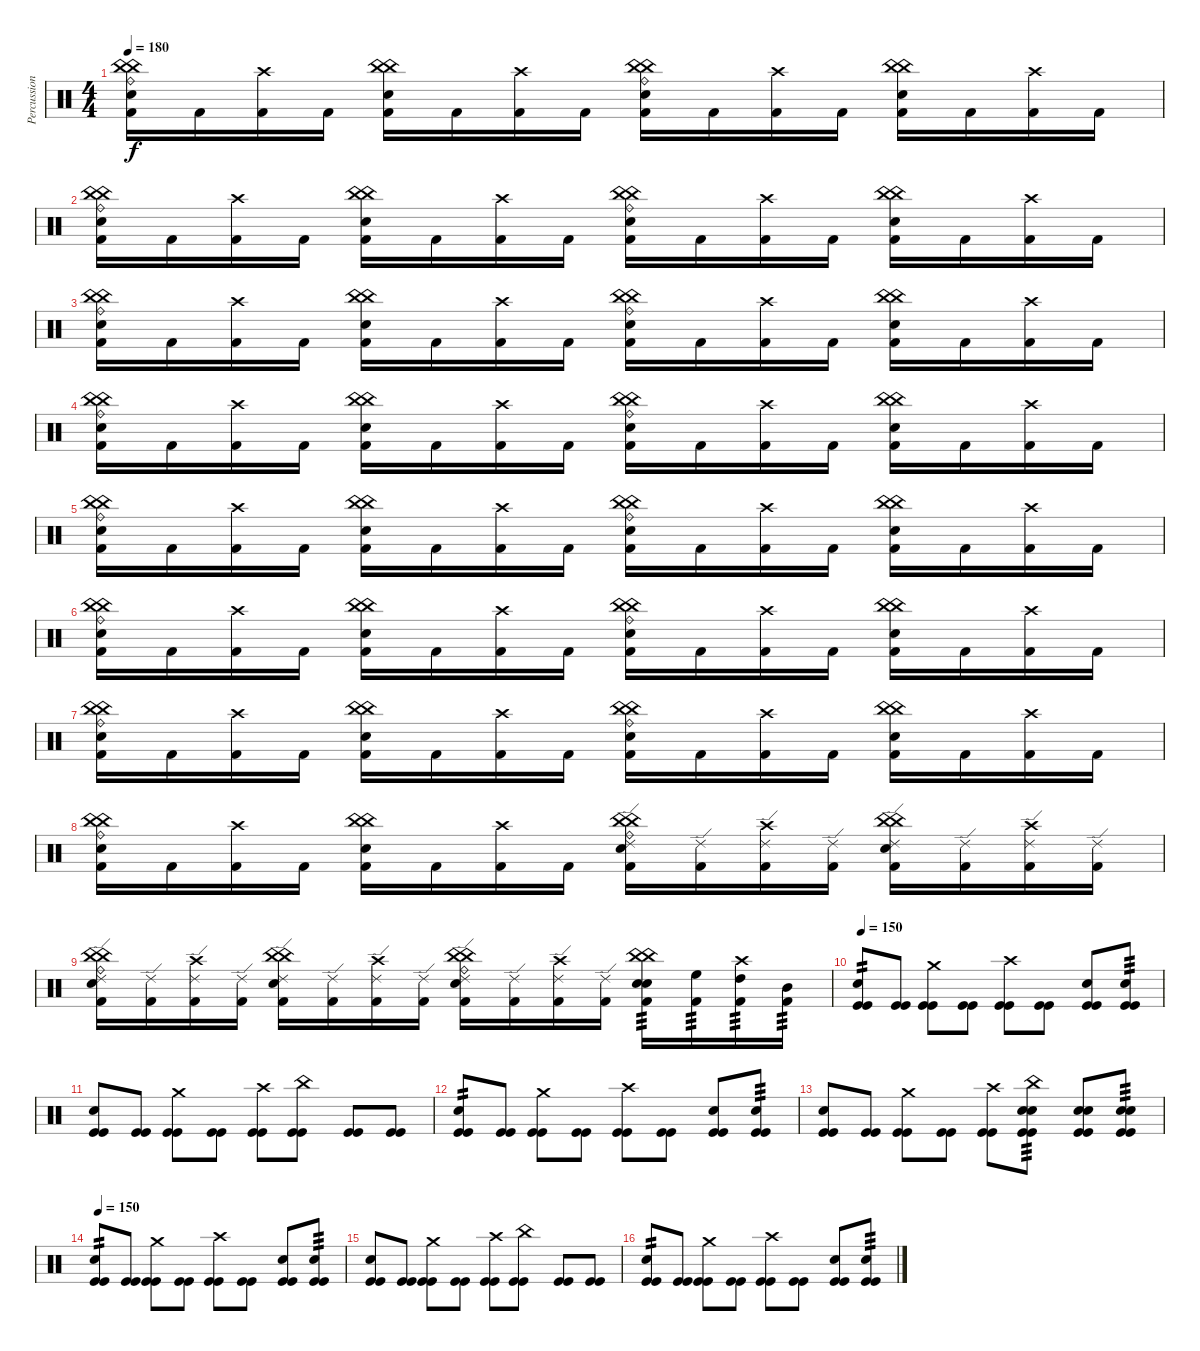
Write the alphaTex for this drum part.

\track ("Percussions" "Percussion") {instrument percussion}
\staff {score}
\articulation defaults
\ts (4 4)
\tempo 180
\clef neutral
\ks c
("China (hit)" "China (hit)" "Ride (bell)" "Snare (hit) 2" "Kick (hit) 2").16{dy f} "Kick (hit) 2".16 ("Crash high (hit)" "Kick (hit) 2").16 "Kick (hit) 2".16 ("China (hit)" "China (hit)" "Snare (hit) 2" "Kick (hit) 2").16 "Kick (hit) 2".16 ("Crash high (hit)" "Kick (hit) 2").16 "Kick (hit) 2".16 ("China (hit)" "China (hit)" "Ride (bell)" "Snare (hit) 2" "Kick (hit) 2").16 "Kick (hit) 2".16 ("Crash high (hit)" "Kick (hit) 2").16 "Kick (hit) 2".16 ("China (hit)" "China (hit)" "Snare (hit) 2" "Kick (hit) 2").16 "Kick (hit) 2".16 ("Crash high (hit)" "Kick (hit) 2").16 "Kick (hit) 2".16 |
("China (hit)" "China (hit)" "Ride (bell)" "Snare (hit) 2" "Kick (hit) 2").16 "Kick (hit) 2".16 ("Crash high (hit)" "Kick (hit) 2").16 "Kick (hit) 2".16 ("China (hit)" "China (hit)" "Snare (hit) 2" "Kick (hit) 2").16 "Kick (hit) 2".16 ("Crash high (hit)" "Kick (hit) 2").16 "Kick (hit) 2".16 ("China (hit)" "China (hit)" "Ride (bell)" "Snare (hit) 2" "Kick (hit) 2").16 "Kick (hit) 2".16 ("Crash high (hit)" "Kick (hit) 2").16 "Kick (hit) 2".16 ("China (hit)" "China (hit)" "Snare (hit) 2" "Kick (hit) 2").16 "Kick (hit) 2".16 ("Crash high (hit)" "Kick (hit) 2").16 "Kick (hit) 2".16 |
("China (hit)" "China (hit)" "Ride (bell)" "Snare (hit) 2" "Kick (hit) 2").16 "Kick (hit) 2".16 ("Crash high (hit)" "Kick (hit) 2").16 "Kick (hit) 2".16 ("China (hit)" "China (hit)" "Snare (hit) 2" "Kick (hit) 2").16 "Kick (hit) 2".16 ("Crash high (hit)" "Kick (hit) 2").16 "Kick (hit) 2".16 ("China (hit)" "China (hit)" "Ride (bell)" "Snare (hit) 2" "Kick (hit) 2").16 "Kick (hit) 2".16 ("Crash high (hit)" "Kick (hit) 2").16 "Kick (hit) 2".16 ("China (hit)" "China (hit)" "Snare (hit) 2" "Kick (hit) 2").16 "Kick (hit) 2".16 ("Crash high (hit)" "Kick (hit) 2").16 "Kick (hit) 2".16 |
("China (hit)" "China (hit)" "Ride (bell)" "Snare (hit) 2" "Kick (hit) 2").16 "Kick (hit) 2".16 ("Crash high (hit)" "Kick (hit) 2").16 "Kick (hit) 2".16 ("China (hit)" "China (hit)" "Snare (hit) 2" "Kick (hit) 2").16 "Kick (hit) 2".16 ("Crash high (hit)" "Kick (hit) 2").16 "Kick (hit) 2".16 ("China (hit)" "China (hit)" "Ride (bell)" "Snare (hit) 2" "Kick (hit) 2").16 "Kick (hit) 2".16 ("Crash high (hit)" "Kick (hit) 2").16 "Kick (hit) 2".16 ("China (hit)" "China (hit)" "Snare (hit) 2" "Kick (hit) 2").16 "Kick (hit) 2".16 ("Crash high (hit)" "Kick (hit) 2").16 "Kick (hit) 2".16 |
("China (hit)" "China (hit)" "Ride (bell)" "Snare (hit) 2" "Kick (hit) 2").16 "Kick (hit) 2".16 ("Crash high (hit)" "Kick (hit) 2").16 "Kick (hit) 2".16 ("China (hit)" "China (hit)" "Snare (hit) 2" "Kick (hit) 2").16 "Kick (hit) 2".16 ("Crash high (hit)" "Kick (hit) 2").16 "Kick (hit) 2".16 ("China (hit)" "China (hit)" "Ride (bell)" "Snare (hit) 2" "Kick (hit) 2").16 "Kick (hit) 2".16 ("Crash high (hit)" "Kick (hit) 2").16 "Kick (hit) 2".16 ("China (hit)" "China (hit)" "Snare (hit) 2" "Kick (hit) 2").16 "Kick (hit) 2".16 ("Crash high (hit)" "Kick (hit) 2").16 "Kick (hit) 2".16 |
("China (hit)" "China (hit)" "Ride (bell)" "Snare (hit) 2" "Kick (hit) 2").16 "Kick (hit) 2".16 ("Crash high (hit)" "Kick (hit) 2").16 "Kick (hit) 2".16 ("China (hit)" "China (hit)" "Snare (hit) 2" "Kick (hit) 2").16 "Kick (hit) 2".16 ("Crash high (hit)" "Kick (hit) 2").16 "Kick (hit) 2".16 ("China (hit)" "China (hit)" "Ride (bell)" "Snare (hit) 2" "Kick (hit) 2").16 "Kick (hit) 2".16 ("Crash high (hit)" "Kick (hit) 2").16 "Kick (hit) 2".16 ("China (hit)" "China (hit)" "Snare (hit) 2" "Kick (hit) 2").16 "Kick (hit) 2".16 ("Crash high (hit)" "Kick (hit) 2").16 "Kick (hit) 2".16 |
("China (hit)" "China (hit)" "Ride (bell)" "Snare (hit) 2" "Kick (hit) 2").16 "Kick (hit) 2".16 ("Crash high (hit)" "Kick (hit) 2").16 "Kick (hit) 2".16 ("China (hit)" "China (hit)" "Snare (hit) 2" "Kick (hit) 2").16 "Kick (hit) 2".16 ("Crash high (hit)" "Kick (hit) 2").16 "Kick (hit) 2".16 ("China (hit)" "China (hit)" "Ride (bell)" "Snare (hit) 2" "Kick (hit) 2").16 "Kick (hit) 2".16 ("Crash high (hit)" "Kick (hit) 2").16 "Kick (hit) 2".16 ("China (hit)" "China (hit)" "Snare (hit) 2" "Kick (hit) 2").16 "Kick (hit) 2".16 ("Crash high (hit)" "Kick (hit) 2").16 "Kick (hit) 2".16 |
("China (hit)" "China (hit)" "Ride (bell)" "Snare (hit) 2" "Kick (hit) 2").16 "Kick (hit) 2".16 ("Crash high (hit)" "Kick (hit) 2").16 "Kick (hit) 2".16 ("China (hit)" "China (hit)" "Snare (hit) 2" "Kick (hit) 2").16 "Kick (hit) 2".16 ("Crash high (hit)" "Kick (hit) 2").16 "Kick (hit) 2".16 ("China (hit)" "China (hit)" "Ride (bell)" "Ride (edge) 2" "Snare (hit) 2" "Kick (hit) 2").16 ("Ride (edge) 2" "Kick (hit) 2").16 ("Ride (edge) 2" "Crash high (hit)" "Kick (hit) 2").16 ("Ride (edge) 2" "Kick (hit) 2").16 ("China (hit)" "China (hit)" "Ride (edge) 2" "Snare (hit) 2" "Kick (hit) 2").16 ("Ride (edge) 2" "Kick (hit) 2").16 ("Ride (edge) 2" "Crash high (hit)" "Kick (hit) 2").16 ("Ride (edge) 2" "Kick (hit) 2").16 |
("China (hit)" "China (hit)" "Ride (bell)" "Ride (edge) 2" "Snare (hit) 2" "Kick (hit) 2").16 ("Ride (edge) 2" "Kick (hit) 2").16 ("Ride (edge) 2" "Crash high (hit)" "Kick (hit) 2").16 ("Ride (edge) 2" "Kick (hit) 2").16 ("China (hit)" "China (hit)" "Ride (edge) 2" "Snare (hit) 2" "Kick (hit) 2").16 ("Ride (edge) 2" "Kick (hit) 2").16 ("Ride (edge) 2" "Crash high (hit)" "Kick (hit) 2").16 ("Ride (edge) 2" "Kick (hit) 2").16 ("China (hit)" "China (hit)" "Ride (bell)" "Ride (edge) 2" "Snare (hit) 2" "Kick (hit) 2").16 ("Ride (edge) 2" "Kick (hit) 2").16 ("Ride (edge) 2" "Crash high (hit)" "Kick (hit) 2").16 ("Ride (edge) 2" "Kick (hit) 2").16 ("China (hit)" "China (hit)" "Snare (hit) 2" "Snare (hit) 2" "Kick (hit) 2").16{tp 3} ("High Floor Tom (hit)" "Kick (hit) 2").16{tp 3} ("High Tom (hit)" "Crash high (hit)" "Kick (hit) 2").16{tp 3} ("Mid Tom (hit)" "Kick (hit) 2").16{tp 3} |
\tempo 150
("Snare (hit) 2" "Kick (hit)" "Kick (hit)").8{tp 2} ("Kick (hit)" "Kick (hit)").8 ("Crash medium (hit)" "Kick (hit)" "Kick (hit)").8 ("Kick (hit)" "Kick (hit)").8 ("Crash high (hit)" "Kick (hit)" "Kick (hit)").8 ("Kick (hit)" "Kick (hit)").8 ("Snare (hit) 2" "Kick (hit)" "Kick (hit)").8 ("Snare (hit) 2" "Kick (hit)" "Kick (hit)").8{tp 3} |
("Snare (hit) 2" "Kick (hit)" "Kick (hit)").8 ("Kick (hit)" "Kick (hit)").8 ("Crash medium (hit)" "Kick (hit)" "Kick (hit)").8 ("Kick (hit)" "Kick (hit)").8 ("Crash high (hit)" "Kick (hit)" "Kick (hit)").8 ("China (hit)" "Kick (hit)" "Kick (hit)").8 ("Kick (hit)" "Kick (hit)").8 ("Kick (hit)" "Kick (hit)").8 |
("Snare (hit) 2" "Kick (hit)" "Kick (hit)").8{tp 2} ("Kick (hit)" "Kick (hit)").8 ("Crash medium (hit)" "Kick (hit)" "Kick (hit)").8 ("Kick (hit)" "Kick (hit)").8 ("Crash high (hit)" "Kick (hit)" "Kick (hit)").8 ("Kick (hit)" "Kick (hit)").8 ("Snare (hit) 2" "Kick (hit)" "Kick (hit)").8 ("Snare (hit) 2" "Kick (hit)" "Kick (hit)").8{tp 3} |
("Snare (hit) 2" "Kick (hit)" "Kick (hit)").8 ("Kick (hit)" "Kick (hit)").8 ("Crash medium (hit)" "Kick (hit)" "Kick (hit)").8 ("Kick (hit)" "Kick (hit)").8 ("Crash high (hit)" "Kick (hit)" "Kick (hit)").8 ("Electric Snare (hit)" "Electric Snare (hit)" "China (hit)" "Kick (hit)" "Kick (hit)").8{tp 3} ("Electric Snare (hit)" "Electric Snare (hit)" "Kick (hit)" "Kick (hit)").8 ("Electric Snare (hit)" "Electric Snare (hit)" "Kick (hit)" "Kick (hit)").8{tp 3} |
\tempo 150
("Snare (hit) 2" "Kick (hit)" "Kick (hit)").8{tp 2} ("Kick (hit)" "Kick (hit)").8 ("Crash medium (hit)" "Kick (hit)" "Kick (hit)").8 ("Kick (hit)" "Kick (hit)").8 ("Crash high (hit)" "Kick (hit)" "Kick (hit)").8 ("Kick (hit)" "Kick (hit)").8 ("Snare (hit) 2" "Kick (hit)" "Kick (hit)").8 ("Snare (hit) 2" "Kick (hit)" "Kick (hit)").8{tp 3} |
("Snare (hit) 2" "Kick (hit)" "Kick (hit)").8 ("Kick (hit)" "Kick (hit)").8 ("Crash medium (hit)" "Kick (hit)" "Kick (hit)").8 ("Kick (hit)" "Kick (hit)").8 ("Crash high (hit)" "Kick (hit)" "Kick (hit)").8 ("China (hit)" "Kick (hit)" "Kick (hit)").8 ("Kick (hit)" "Kick (hit)").8 ("Kick (hit)" "Kick (hit)").8 |
("Snare (hit) 2" "Kick (hit)" "Kick (hit)").8{tp 2} ("Kick (hit)" "Kick (hit)").8 ("Crash medium (hit)" "Kick (hit)" "Kick (hit)").8 ("Kick (hit)" "Kick (hit)").8 ("Crash high (hit)" "Kick (hit)" "Kick (hit)").8 ("Kick (hit)" "Kick (hit)").8 ("Snare (hit) 2" "Kick (hit)" "Kick (hit)").8 ("Snare (hit) 2" "Kick (hit)" "Kick (hit)").8{tp 3}
